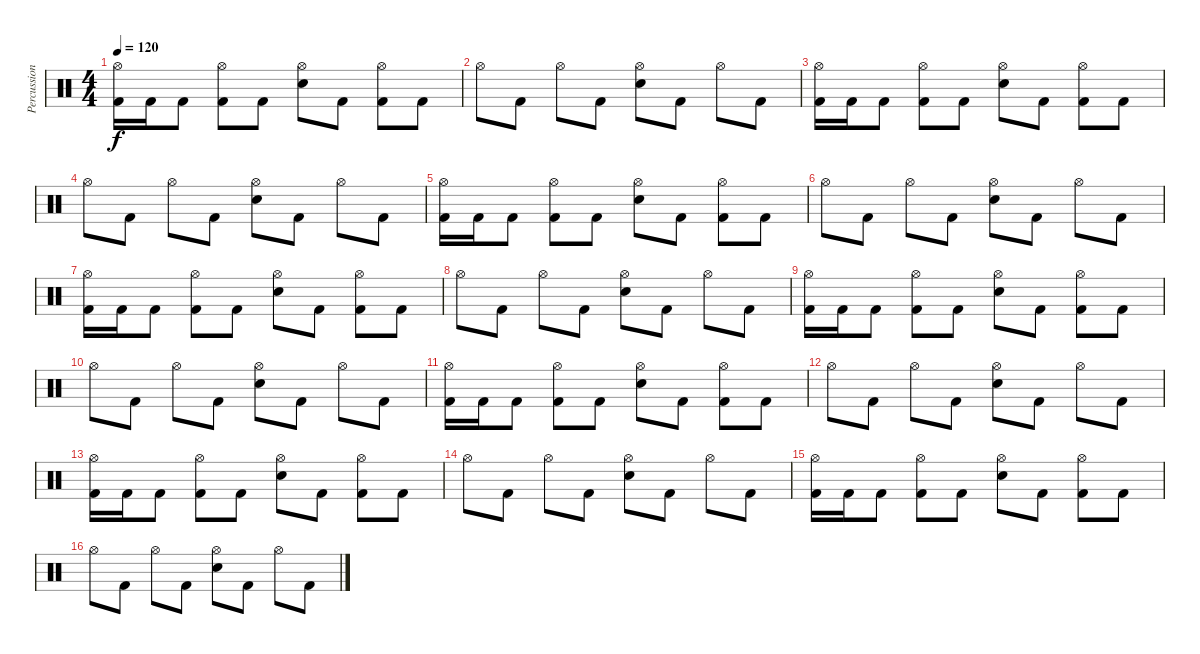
\track ("Percussion" "Percussion") {instrument percussion}
\staff {score}
\articulation defaults
\ts (4 4)
\tempo 120
\clef neutral
\ks c
("Hi-Hat (open)" "Kick (hit) 2").16{dy f} "Kick (hit) 2".16 "Kick (hit) 2".8 ("Hi-Hat (open)" "Kick (hit) 2").8 "Kick (hit) 2".8 ("Hi-Hat (open)" "Snare (hit) 2").8 "Kick (hit) 2".8 ("Hi-Hat (open)" "Kick (hit) 2").8 "Kick (hit) 2".8 |
"Hi-Hat (open)".8 "Kick (hit) 2".8 "Hi-Hat (open)".8 "Kick (hit) 2".8 ("Hi-Hat (open)" "Snare (hit) 2").8 "Kick (hit) 2".8 "Hi-Hat (open)".8 "Kick (hit) 2".8 |
("Hi-Hat (open)" "Kick (hit) 2").16 "Kick (hit) 2".16 "Kick (hit) 2".8 ("Hi-Hat (open)" "Kick (hit) 2").8 "Kick (hit) 2".8 ("Hi-Hat (open)" "Snare (hit) 2").8 "Kick (hit) 2".8 ("Hi-Hat (open)" "Kick (hit) 2").8 "Kick (hit) 2".8 |
"Hi-Hat (open)".8 "Kick (hit) 2".8 "Hi-Hat (open)".8 "Kick (hit) 2".8 ("Hi-Hat (open)" "Snare (hit) 2").8 "Kick (hit) 2".8 "Hi-Hat (open)".8 "Kick (hit) 2".8 |
("Hi-Hat (open)" "Kick (hit) 2").16 "Kick (hit) 2".16 "Kick (hit) 2".8 ("Hi-Hat (open)" "Kick (hit) 2").8 "Kick (hit) 2".8 ("Hi-Hat (open)" "Snare (hit) 2").8 "Kick (hit) 2".8 ("Hi-Hat (open)" "Kick (hit) 2").8 "Kick (hit) 2".8 |
"Hi-Hat (open)".8 "Kick (hit) 2".8 "Hi-Hat (open)".8 "Kick (hit) 2".8 ("Hi-Hat (open)" "Snare (hit) 2").8 "Kick (hit) 2".8 "Hi-Hat (open)".8 "Kick (hit) 2".8 |
("Hi-Hat (open)" "Kick (hit) 2").16 "Kick (hit) 2".16 "Kick (hit) 2".8 ("Hi-Hat (open)" "Kick (hit) 2").8 "Kick (hit) 2".8 ("Hi-Hat (open)" "Snare (hit) 2").8 "Kick (hit) 2".8 ("Hi-Hat (open)" "Kick (hit) 2").8 "Kick (hit) 2".8 |
"Hi-Hat (open)".8 "Kick (hit) 2".8 "Hi-Hat (open)".8 "Kick (hit) 2".8 ("Hi-Hat (open)" "Snare (hit) 2").8 "Kick (hit) 2".8 "Hi-Hat (open)".8 "Kick (hit) 2".8 |
("Hi-Hat (open)" "Kick (hit) 2").16 "Kick (hit) 2".16 "Kick (hit) 2".8 ("Hi-Hat (open)" "Kick (hit) 2").8 "Kick (hit) 2".8 ("Hi-Hat (open)" "Snare (hit) 2").8 "Kick (hit) 2".8 ("Hi-Hat (open)" "Kick (hit) 2").8 "Kick (hit) 2".8 |
"Hi-Hat (open)".8 "Kick (hit) 2".8 "Hi-Hat (open)".8 "Kick (hit) 2".8 ("Hi-Hat (open)" "Snare (hit) 2").8 "Kick (hit) 2".8 "Hi-Hat (open)".8 "Kick (hit) 2".8 |
("Hi-Hat (open)" "Kick (hit) 2").16 "Kick (hit) 2".16 "Kick (hit) 2".8 ("Hi-Hat (open)" "Kick (hit) 2").8 "Kick (hit) 2".8 ("Hi-Hat (open)" "Snare (hit) 2").8 "Kick (hit) 2".8 ("Hi-Hat (open)" "Kick (hit) 2").8 "Kick (hit) 2".8 |
"Hi-Hat (open)".8 "Kick (hit) 2".8 "Hi-Hat (open)".8 "Kick (hit) 2".8 ("Hi-Hat (open)" "Snare (hit) 2").8 "Kick (hit) 2".8 "Hi-Hat (open)".8 "Kick (hit) 2".8 |
("Hi-Hat (open)" "Kick (hit) 2").16 "Kick (hit) 2".16 "Kick (hit) 2".8 ("Hi-Hat (open)" "Kick (hit) 2").8 "Kick (hit) 2".8 ("Hi-Hat (open)" "Snare (hit) 2").8 "Kick (hit) 2".8 ("Hi-Hat (open)" "Kick (hit) 2").8 "Kick (hit) 2".8 |
"Hi-Hat (open)".8 "Kick (hit) 2".8 "Hi-Hat (open)".8 "Kick (hit) 2".8 ("Hi-Hat (open)" "Snare (hit) 2").8 "Kick (hit) 2".8 "Hi-Hat (open)".8 "Kick (hit) 2".8 |
("Hi-Hat (open)" "Kick (hit) 2").16 "Kick (hit) 2".16 "Kick (hit) 2".8 ("Hi-Hat (open)" "Kick (hit) 2").8 "Kick (hit) 2".8 ("Hi-Hat (open)" "Snare (hit) 2").8 "Kick (hit) 2".8 ("Hi-Hat (open)" "Kick (hit) 2").8 "Kick (hit) 2".8 |
"Hi-Hat (open)".8 "Kick (hit) 2".8 "Hi-Hat (open)".8 "Kick (hit) 2".8 ("Hi-Hat (open)" "Snare (hit) 2").8 "Kick (hit) 2".8 "Hi-Hat (open)".8 "Kick (hit) 2".8
